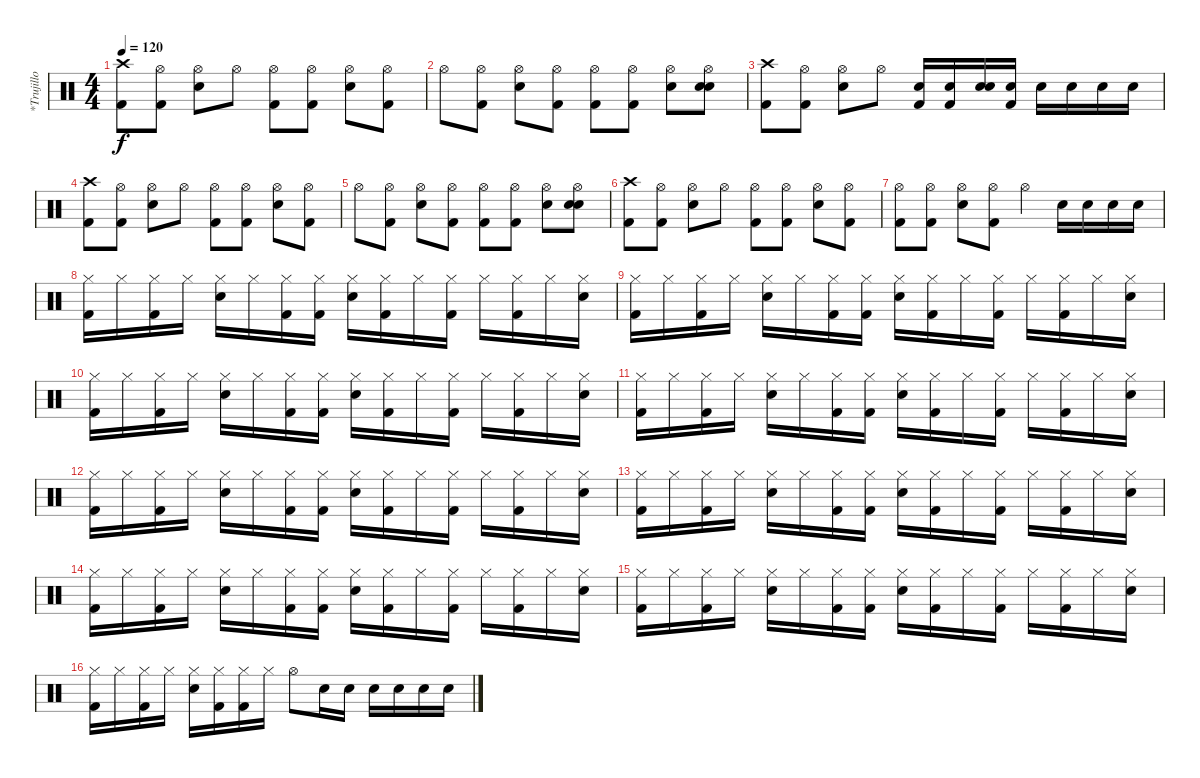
\track ("*Trujillo" "*Trujillo") {instrument percussion}
\staff {score}
\articulation defaults
\ts (4 4)
\tempo 120
\clef neutral
\ks c
("Crash high (hit)" "Kick (hit) 2").8{dy f} ("Hi-Hat (open)" "Kick (hit) 2").8 ("Hi-Hat (open)" "Electric Snare (hit)").8 "Hi-Hat (open)".8 ("Hi-Hat (open)" "Kick (hit) 2").8 ("Hi-Hat (open)" "Kick (hit) 2").8 ("Hi-Hat (open)" "Electric Snare (hit)").8 ("Hi-Hat (open)" "Kick (hit) 2").8 |
"Hi-Hat (open)".8 ("Hi-Hat (open)" "Kick (hit) 2").8 ("Hi-Hat (open)" "Electric Snare (hit)").8 ("Hi-Hat (open)" "Kick (hit) 2"{x}).8 ("Hi-Hat (open)" "Kick (hit) 2").8 ("Hi-Hat (open)" "Kick (hit) 2").8 ("Hi-Hat (open)" "Electric Snare (hit)").8 ("Hi-Hat (open)" "Snare (hit)" "Electric Snare (hit)"{x}).8 |
("Crash high (hit)" "Kick (hit) 2").8 ("Hi-Hat (open)" "Kick (hit) 2").8 ("Hi-Hat (open)" "Electric Snare (hit)").8 "Hi-Hat (open)".8 ("Electric Snare (hit)" "Kick (hit) 2").16 ("Electric Snare (hit)" "Kick (hit) 2").16 ("Electric Snare (hit)" "Electric Snare (hit)").16 ("Electric Snare (hit)" "Kick (hit) 2").16 "Electric Snare (hit)".16 "Electric Snare (hit)".16 "Electric Snare (hit)".16 "Electric Snare (hit)".16 |
("Crash high (hit)" "Kick (hit) 2").8 ("Hi-Hat (open)" "Kick (hit) 2").8 ("Hi-Hat (open)" "Electric Snare (hit)").8 "Hi-Hat (open)".8 ("Hi-Hat (open)" "Kick (hit) 2").8 ("Hi-Hat (open)" "Kick (hit) 2").8 ("Hi-Hat (open)" "Electric Snare (hit)").8 ("Hi-Hat (open)" "Kick (hit) 2").8 |
"Hi-Hat (open)".8 ("Hi-Hat (open)" "Kick (hit) 2").8 ("Hi-Hat (open)" "Electric Snare (hit)").8 ("Hi-Hat (open)" "Kick (hit) 2"{x}).8 ("Hi-Hat (open)" "Kick (hit) 2").8 ("Hi-Hat (open)" "Kick (hit) 2").8 ("Hi-Hat (open)" "Electric Snare (hit)").8 ("Hi-Hat (open)" "Snare (hit)" "Electric Snare (hit)"{x}).8 |
("Crash high (hit)" "Kick (hit) 2").8 ("Hi-Hat (open)" "Kick (hit) 2").8 ("Hi-Hat (open)" "Electric Snare (hit)").8 "Hi-Hat (open)".8 ("Hi-Hat (open)" "Kick (hit) 2").8 ("Hi-Hat (open)" "Kick (hit) 2").8 ("Hi-Hat (open)" "Electric Snare (hit)").8 ("Hi-Hat (open)" "Kick (hit) 2").8 |
("Hi-Hat (open)" "Kick (hit) 2").8 ("Hi-Hat (open)" "Kick (hit) 2").8 ("Hi-Hat (open)" "Electric Snare (hit)").8 ("Hi-Hat (open)" "Kick (hit) 2").8 "Hi-Hat (open)".4 "Electric Snare (hit)".16 "Electric Snare (hit)".16 "Electric Snare (hit)".16 "Electric Snare (hit)".16 |
("Hi-Hat (closed)" "Kick (hit) 2").16 "Hi-Hat (closed)".16 ("Hi-Hat (closed)" "Kick (hit) 2").16 "Hi-Hat (closed)".16 ("Hi-Hat (closed)" "Electric Snare (hit)").16 "Hi-Hat (closed)".16 ("Hi-Hat (closed)" "Kick (hit) 2").16 ("Hi-Hat (closed)" "Kick (hit) 2").16 ("Hi-Hat (closed)" "Electric Snare (hit)").16 ("Hi-Hat (closed)" "Kick (hit) 2").16 "Hi-Hat (closed)".16 ("Hi-Hat (closed)" "Kick (hit) 2").16 "Hi-Hat (closed)".16 ("Hi-Hat (closed)" "Kick (hit) 2").16 "Hi-Hat (closed)".16 ("Hi-Hat (closed)" "Electric Snare (hit)").16 |
("Hi-Hat (closed)" "Kick (hit) 2").16 "Hi-Hat (closed)".16 ("Hi-Hat (closed)" "Kick (hit) 2").16 "Hi-Hat (closed)".16 ("Hi-Hat (closed)" "Electric Snare (hit)").16 "Hi-Hat (closed)".16 ("Hi-Hat (closed)" "Kick (hit) 2").16 ("Hi-Hat (closed)" "Kick (hit) 2").16 ("Hi-Hat (closed)" "Electric Snare (hit)").16 ("Hi-Hat (closed)" "Kick (hit) 2").16 "Hi-Hat (closed)".16 ("Hi-Hat (closed)" "Kick (hit) 2").16 "Hi-Hat (closed)".16 ("Hi-Hat (closed)" "Kick (hit) 2").16 "Hi-Hat (closed)".16 ("Hi-Hat (closed)" "Electric Snare (hit)").16 |
("Hi-Hat (closed)" "Kick (hit) 2").16 "Hi-Hat (closed)".16 ("Hi-Hat (closed)" "Kick (hit) 2").16 "Hi-Hat (closed)".16 ("Hi-Hat (closed)" "Electric Snare (hit)").16 "Hi-Hat (closed)".16 ("Hi-Hat (closed)" "Kick (hit) 2").16 ("Hi-Hat (closed)" "Kick (hit) 2").16 ("Hi-Hat (closed)" "Electric Snare (hit)").16 ("Hi-Hat (closed)" "Kick (hit) 2").16 "Hi-Hat (closed)".16 ("Hi-Hat (closed)" "Kick (hit) 2").16 "Hi-Hat (closed)".16 ("Hi-Hat (closed)" "Kick (hit) 2").16 "Hi-Hat (closed)".16 ("Hi-Hat (closed)" "Electric Snare (hit)").16 |
("Hi-Hat (closed)" "Kick (hit) 2").16 "Hi-Hat (closed)".16 ("Hi-Hat (closed)" "Kick (hit) 2").16 "Hi-Hat (closed)".16 ("Hi-Hat (closed)" "Electric Snare (hit)").16 "Hi-Hat (closed)".16 ("Hi-Hat (closed)" "Kick (hit) 2").16 ("Hi-Hat (closed)" "Kick (hit) 2").16 ("Hi-Hat (closed)" "Electric Snare (hit)").16 ("Hi-Hat (closed)" "Kick (hit) 2").16 "Hi-Hat (closed)".16 ("Hi-Hat (closed)" "Kick (hit) 2").16 "Hi-Hat (closed)".16 ("Hi-Hat (closed)" "Kick (hit) 2").16 "Hi-Hat (closed)".16 ("Hi-Hat (closed)" "Electric Snare (hit)").16 |
("Hi-Hat (closed)" "Kick (hit) 2").16 "Hi-Hat (closed)".16 ("Hi-Hat (closed)" "Kick (hit) 2").16 "Hi-Hat (closed)".16 ("Hi-Hat (closed)" "Electric Snare (hit)").16 "Hi-Hat (closed)".16 ("Hi-Hat (closed)" "Kick (hit) 2").16 ("Hi-Hat (closed)" "Kick (hit) 2").16 ("Hi-Hat (closed)" "Electric Snare (hit)").16 ("Hi-Hat (closed)" "Kick (hit) 2").16 "Hi-Hat (closed)".16 ("Hi-Hat (closed)" "Kick (hit) 2").16 "Hi-Hat (closed)".16 ("Hi-Hat (closed)" "Kick (hit) 2").16 "Hi-Hat (closed)".16 ("Hi-Hat (closed)" "Electric Snare (hit)").16 |
("Hi-Hat (closed)" "Kick (hit) 2").16 "Hi-Hat (closed)".16 ("Hi-Hat (closed)" "Kick (hit) 2").16 "Hi-Hat (closed)".16 ("Hi-Hat (closed)" "Electric Snare (hit)").16 "Hi-Hat (closed)".16 ("Hi-Hat (closed)" "Kick (hit) 2").16 ("Hi-Hat (closed)" "Kick (hit) 2").16 ("Hi-Hat (closed)" "Electric Snare (hit)").16 ("Hi-Hat (closed)" "Kick (hit) 2").16 "Hi-Hat (closed)".16 ("Hi-Hat (closed)" "Kick (hit) 2").16 "Hi-Hat (closed)".16 ("Hi-Hat (closed)" "Kick (hit) 2").16 "Hi-Hat (closed)".16 ("Hi-Hat (closed)" "Electric Snare (hit)").16 |
("Hi-Hat (closed)" "Kick (hit) 2").16 "Hi-Hat (closed)".16 ("Hi-Hat (closed)" "Kick (hit) 2").16 "Hi-Hat (closed)".16 ("Hi-Hat (closed)" "Electric Snare (hit)").16 "Hi-Hat (closed)".16 ("Hi-Hat (closed)" "Kick (hit) 2").16 ("Hi-Hat (closed)" "Kick (hit) 2").16 ("Hi-Hat (closed)" "Electric Snare (hit)").16 ("Hi-Hat (closed)" "Kick (hit) 2").16 "Hi-Hat (closed)".16 ("Hi-Hat (closed)" "Kick (hit) 2").16 "Hi-Hat (closed)".16 ("Hi-Hat (closed)" "Kick (hit) 2").16 "Hi-Hat (closed)".16 ("Hi-Hat (closed)" "Electric Snare (hit)").16 |
("Hi-Hat (closed)" "Kick (hit) 2").16 "Hi-Hat (closed)".16 ("Hi-Hat (closed)" "Kick (hit) 2").16 "Hi-Hat (closed)".16 ("Hi-Hat (closed)" "Electric Snare (hit)").16 "Hi-Hat (closed)".16 ("Hi-Hat (closed)" "Kick (hit) 2").16 ("Hi-Hat (closed)" "Kick (hit) 2").16 ("Hi-Hat (closed)" "Electric Snare (hit)").16 ("Hi-Hat (closed)" "Kick (hit) 2").16 "Hi-Hat (closed)".16 ("Hi-Hat (closed)" "Kick (hit) 2").16 "Hi-Hat (closed)".16 ("Hi-Hat (closed)" "Kick (hit) 2").16 "Hi-Hat (closed)".16 ("Hi-Hat (closed)" "Electric Snare (hit)").16 |
("Hi-Hat (closed)" "Kick (hit) 2").16 "Hi-Hat (closed)".16 ("Hi-Hat (closed)" "Kick (hit) 2").16 "Hi-Hat (closed)".16 ("Hi-Hat (closed)" "Electric Snare (hit)").16 ("Hi-Hat (closed)" "Kick (hit) 2").16 ("Hi-Hat (closed)" "Kick (hit) 2").16 "Hi-Hat (closed)".16 "Hi-Hat (open)".8 "Electric Snare (hit)".16 "Electric Snare (hit)".16 "Electric Snare (hit)".16 "Electric Snare (hit)".16 "Electric Snare (hit)".16 "Electric Snare (hit)".16
